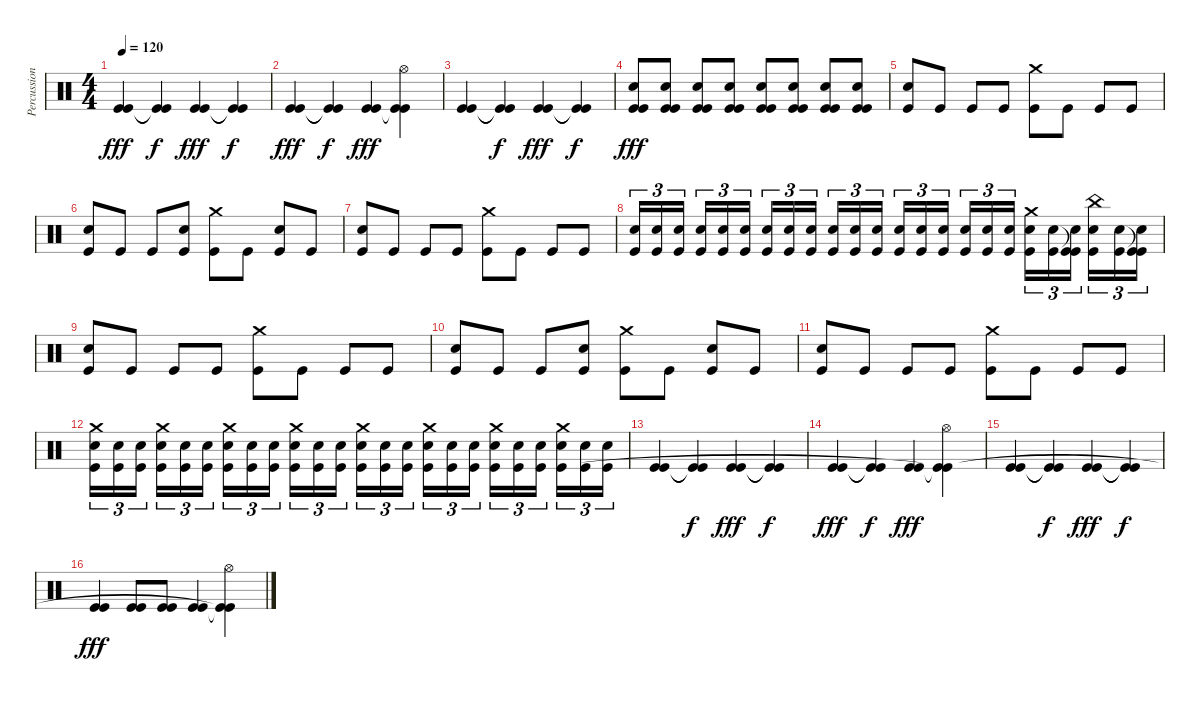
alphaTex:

\track ("Percussions" "Percussion") {instrument percussion}
\staff {score}
\articulation defaults
\ts (4 4)
\tempo 120
\clef neutral
\ks c
("Kick (hit)" "Kick (hit)").4{dy fff} ("Kick (hit)"{t} "Kick (hit)"{t}).4{dy f} ("Kick (hit)" "Kick (hit)").4{dy fff} ("Kick (hit)"{t} "Kick (hit)"{t}).4{dy f} |
("Kick (hit)" "Kick (hit)").4{dy fff} ("Kick (hit)"{t} "Kick (hit)"{t}).4{dy f} ("Kick (hit)" "Kick (hit)").4{dy fff} ("Hi-Hat (open)" "Kick (hit)"{t} "Kick (hit)"{t}).4 |
("Kick (hit)" "Kick (hit)").4 ("Kick (hit)"{t} "Kick (hit)"{t}).4{dy f} ("Kick (hit)" "Kick (hit)").4{dy fff} ("Kick (hit)"{t} "Kick (hit)"{t}).4{dy f} |
("Snare (hit) 2" "Kick (hit)" "Kick (hit)").8{dy fff} ("Snare (hit) 2" "Kick (hit)" "Kick (hit)").8 ("Snare (hit) 2" "Kick (hit)" "Kick (hit)").8 ("Snare (hit) 2" "Kick (hit)" "Kick (hit)").8 ("Snare (hit) 2" "Kick (hit)" "Kick (hit)").8 ("Snare (hit) 2" "Kick (hit)" "Kick (hit)").8 ("Snare (hit) 2" "Kick (hit)" "Kick (hit)").8 ("Snare (hit) 2" "Kick (hit)" "Kick (hit)").8 |
("Snare (hit) 2" "Kick (hit)").8 "Kick (hit)".8 "Kick (hit)".8 "Kick (hit)".8 ("Crash medium (hit)" "Kick (hit)").8 "Kick (hit)".8 "Kick (hit)".8 "Kick (hit)".8 |
("Snare (hit) 2" "Kick (hit)").8 "Kick (hit)".8 "Kick (hit)".8 ("Snare (hit) 2" "Kick (hit)").8 ("Crash medium (hit)" "Kick (hit)").8 "Kick (hit)".8 ("Snare (hit) 2" "Kick (hit)").8 "Kick (hit)".8 |
("Snare (hit) 2" "Kick (hit)").8 "Kick (hit)".8 "Kick (hit)".8 "Kick (hit)".8 ("Crash medium (hit)" "Kick (hit)").8 "Kick (hit)".8 "Kick (hit)".8 "Kick (hit)".8 |
("Snare (hit) 2" "Kick (hit)").16{tu (3 2)} ("Snare (hit) 2" "Kick (hit)").16{tu (3 2)} ("Snare (hit) 2" "Kick (hit)").16{tu (3 2)} ("Snare (hit) 2" "Kick (hit)").16{tu (3 2)} ("Snare (hit) 2" "Kick (hit)").16{tu (3 2)} ("Snare (hit) 2" "Kick (hit)").16{tu (3 2)} ("Snare (hit) 2" "Kick (hit)").16{tu (3 2)} ("Snare (hit) 2" "Kick (hit)").16{tu (3 2)} ("Snare (hit) 2" "Kick (hit)").16{tu (3 2)} ("Snare (hit) 2" "Kick (hit)").16{tu (3 2)} ("Snare (hit) 2" "Kick (hit)").16{tu (3 2)} ("Snare (hit) 2" "Kick (hit)").16{tu (3 2)} ("Snare (hit) 2" "Kick (hit)").16{tu (3 2)} ("Snare (hit) 2" "Kick (hit)").16{tu (3 2)} ("Snare (hit) 2" "Kick (hit)").16{tu (3 2)} ("Snare (hit) 2" "Kick (hit)").16{tu (3 2)} ("Snare (hit) 2" "Kick (hit)").16{tu (3 2)} ("Snare (hit) 2" "Kick (hit)").16{tu (3 2)} ("Crash medium (hit)" "Snare (hit) 2" "Kick (hit)").16{tu (3 2)} ("Snare (hit) 2" "Kick (hit)").16{tu (3 2)} ("Kick (hit)"{t} "Snare (hit) 2" "Kick (hit)").16{tu (3 2)} ("China (hit)" "Snare (hit) 2" "Kick (hit)").16{tu (3 2)} ("Snare (hit) 2" "Kick (hit)").16{tu (3 2)} ("Kick (hit)"{t} "Snare (hit) 2" "Kick (hit)").16{tu (3 2)} |
("Snare (hit) 2" "Kick (hit)").8 "Kick (hit)".8 "Kick (hit)".8 "Kick (hit)".8 ("Crash medium (hit)" "Kick (hit)").8 "Kick (hit)".8 "Kick (hit)".8 "Kick (hit)".8 |
("Snare (hit) 2" "Kick (hit)").8 "Kick (hit)".8 "Kick (hit)".8 ("Snare (hit) 2" "Kick (hit)").8 ("Crash medium (hit)" "Kick (hit)").8 "Kick (hit)".8 ("Snare (hit) 2" "Kick (hit)").8 "Kick (hit)".8 |
("Snare (hit) 2" "Kick (hit)").8 "Kick (hit)".8 "Kick (hit)".8 "Kick (hit)".8 ("Crash medium (hit)" "Kick (hit)").8 "Kick (hit)".8 "Kick (hit)".8 "Kick (hit)".8 |
("Crash medium (hit)" "Snare (hit) 2" "Kick (hit)").16{tu (3 2)} ("Snare (hit) 2" "Kick (hit)").16{tu (3 2)} ("Snare (hit) 2" "Kick (hit)").16{tu (3 2)} ("Crash medium (hit)" "Snare (hit) 2" "Kick (hit)").16{tu (3 2)} ("Snare (hit) 2" "Kick (hit)").16{tu (3 2)} ("Snare (hit) 2" "Kick (hit)").16{tu (3 2)} ("Crash medium (hit)" "Snare (hit) 2" "Kick (hit)").16{tu (3 2)} ("Snare (hit) 2" "Kick (hit)").16{tu (3 2)} ("Snare (hit) 2" "Kick (hit)").16{tu (3 2)} ("Crash medium (hit)" "Snare (hit) 2" "Kick (hit)").16{tu (3 2)} ("Snare (hit) 2" "Kick (hit)").16{tu (3 2)} ("Snare (hit) 2" "Kick (hit)").16{tu (3 2)} ("Crash medium (hit)" "Snare (hit) 2" "Kick (hit)").16{tu (3 2)} ("Snare (hit) 2" "Kick (hit)").16{tu (3 2)} ("Snare (hit) 2" "Kick (hit)").16{tu (3 2)} ("Crash medium (hit)" "Snare (hit) 2" "Kick (hit)").16{tu (3 2)} ("Snare (hit) 2" "Kick (hit)").16{tu (3 2)} ("Snare (hit) 2" "Kick (hit)").16{tu (3 2)} ("Crash medium (hit)" "Snare (hit) 2" "Kick (hit)").16{tu (3 2)} ("Snare (hit) 2" "Kick (hit)").16{tu (3 2)} ("Snare (hit) 2" "Kick (hit)").16{tu (3 2)} ("Crash medium (hit)" "Snare (hit) 2" "Kick (hit)").16{tu (3 2)} ("Snare (hit) 2" "Kick (hit)").16{tu (3 2)} ("Snare (hit) 2" "Kick (hit)").16{tu (3 2)} |
("Kick (hit)" "Kick (hit)").4 ("Kick (hit)"{t} "Kick (hit)"{t}).4{dy f} ("Kick (hit)" "Kick (hit)").4{dy fff} ("Kick (hit)"{t} "Kick (hit)"{t}).4{dy f} |
("Kick (hit)" "Kick (hit)").4{dy fff} ("Kick (hit)"{t} "Kick (hit)"{t}).4{dy f} ("Kick (hit)" "Kick (hit)").4{dy fff} ("Hi-Hat (open)" "Kick (hit)"{t} "Kick (hit)"{t}).4 |
("Kick (hit)" "Kick (hit)").4 ("Kick (hit)"{t} "Kick (hit)"{t}).4{dy f} ("Kick (hit)" "Kick (hit)").4{dy fff} ("Kick (hit)"{t} "Kick (hit)"{t}).4{dy f} |
("Kick (hit)" "Kick (hit)").4{dy fff} ("Kick (hit)" "Kick (hit)").8 ("Kick (hit)" "Kick (hit)").8 ("Kick (hit)" "Kick (hit)").4 ("Hi-Hat (open)" "Kick (hit)"{t} "Kick (hit)"{t}).4
